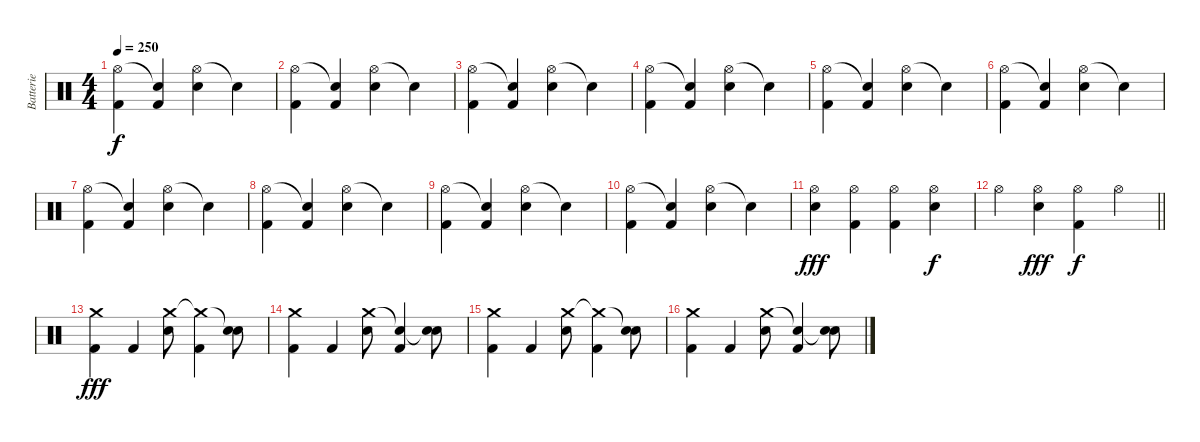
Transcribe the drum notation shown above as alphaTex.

\track ("Batterie" "Batterie") {instrument percussion}
\staff {score}
\articulation defaults
\ts (4 4)
\tempo 250
\clef neutral
\ks c
("Hi-Hat (open)" "Kick (hit) 2").4{dy f} ("Snare (hit)"{t} "Kick (hit) 2").4 ("Hi-Hat (open)" "Electric Snare (hit)").4 "Snare (hit)"{t}.4 |
("Hi-Hat (open)" "Kick (hit) 2").4 ("Snare (hit)"{t} "Kick (hit) 2").4 ("Hi-Hat (open)" "Electric Snare (hit)").4 "Snare (hit)"{t}.4 |
("Hi-Hat (open)" "Kick (hit) 2").4 ("Snare (hit)"{t} "Kick (hit) 2").4 ("Hi-Hat (open)" "Electric Snare (hit)").4 "Snare (hit)"{t}.4 |
("Hi-Hat (open)" "Kick (hit) 2").4 ("Snare (hit)"{t} "Kick (hit) 2").4 ("Hi-Hat (open)" "Electric Snare (hit)").4 "Snare (hit)"{t}.4 |
("Hi-Hat (open)" "Kick (hit) 2").4 ("Snare (hit)"{t} "Kick (hit) 2").4 ("Hi-Hat (open)" "Electric Snare (hit)").4 "Snare (hit)"{t}.4 |
("Hi-Hat (open)" "Kick (hit) 2").4 ("Snare (hit)"{t} "Kick (hit) 2").4 ("Hi-Hat (open)" "Electric Snare (hit)").4 "Snare (hit)"{t}.4 |
("Hi-Hat (open)" "Kick (hit) 2").4 ("Snare (hit)"{t} "Kick (hit) 2").4 ("Hi-Hat (open)" "Electric Snare (hit)").4 "Snare (hit)"{t}.4 |
("Hi-Hat (open)" "Kick (hit) 2").4 ("Snare (hit)"{t} "Kick (hit) 2").4 ("Hi-Hat (open)" "Electric Snare (hit)").4 "Snare (hit)"{t}.4 |
("Hi-Hat (open)" "Kick (hit) 2").4 ("Snare (hit)"{t} "Kick (hit) 2").4 ("Hi-Hat (open)" "Electric Snare (hit)").4 "Snare (hit)"{t}.4 |
("Hi-Hat (open)" "Kick (hit) 2").4 ("Snare (hit)"{t} "Kick (hit) 2").4 ("Hi-Hat (open)" "Electric Snare (hit)").4 "Snare (hit)"{t}.4 |
("Hi-Hat (open)" "Electric Snare (hit)").4{dy fff} ("Hi-Hat (open)" "Kick (hit) 2").4 ("Hi-Hat (open)" "Kick (hit) 2").4 ("Hi-Hat (open)" "Electric Snare (hit)").4{dy f} |
\barLineRight lightlight "Hi-Hat (open)".4
("Hi-Hat (open)" "Electric Snare (hit)").4{dy fff} ("Hi-Hat (open)" "Kick (hit) 2").4{dy f} "Hi-Hat (open)".4 |
("Crash medium (hit)" "Kick (hit) 2").4{dy fff} "Kick (hit) 2".4 ("Crash medium (hit)" "Electric Snare (hit)").8 ("Crash medium (hit)"{t} "Kick (hit) 2").4 ("Snare (hit)"{t} "Electric Snare (hit)").8 |
("Crash medium (hit)" "Kick (hit) 2").4 "Kick (hit) 2".4 ("Crash medium (hit)" "Electric Snare (hit)").8 ("Snare (hit)"{t} "Kick (hit) 2").4 ("Snare (hit)"{t} "Electric Snare (hit)").8 |
("Crash medium (hit)" "Kick (hit) 2").4 "Kick (hit) 2".4 ("Crash medium (hit)" "Electric Snare (hit)").8 ("Crash medium (hit)"{t} "Kick (hit) 2").4 ("Snare (hit)"{t} "Electric Snare (hit)").8 |
("Crash medium (hit)" "Kick (hit) 2").4 "Kick (hit) 2".4 ("Crash medium (hit)" "Electric Snare (hit)").8 ("Snare (hit)"{t} "Kick (hit) 2").4 ("Snare (hit)"{t} "Electric Snare (hit)").8
